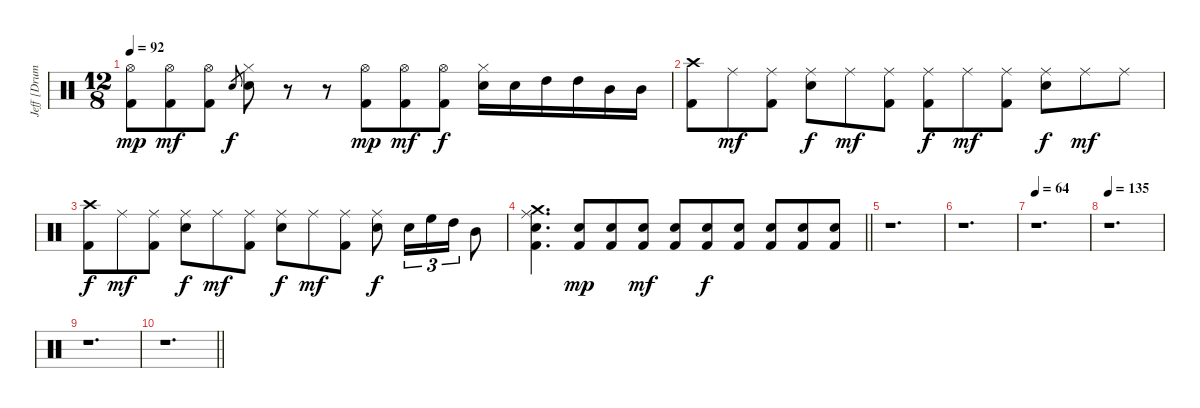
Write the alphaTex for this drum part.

\track ("Jeff [Drums]" "Jeff [Drum") {instrument percussion}
\staff {score}
\articulation defaults
\ts (12 8)
\tempo 92
\clef neutral
\ks c
("Hi-Hat (open)" "Kick (hit) 2").8{dy mp} ("Hi-Hat (open)" "Kick (hit) 2").8{dy mf} ("Hi-Hat (open)" "Kick (hit) 2").8 "Electric Snare (hit)".8{gr dy f} ("Hi-Hat (closed)" "Electric Snare (hit)").8 r.8 r.8 ("Hi-Hat (open)" "Kick (hit) 2").8{dy mp} ("Hi-Hat (open)" "Kick (hit) 2").8{dy mf} ("Hi-Hat (open)" "Kick (hit) 2").8{dy f} ("Hi-Hat (closed)" "Electric Snare (hit)").16 "Electric Snare (hit)".16 "High Tom (hit)".16 "High Tom (hit)".16 "Mid Tom (hit)".16 "Mid Tom (hit)".16 |
("Crash high (hit)" "Kick (hit) 2").8 "Ride (middle)".8{dy mf} ("Ride (middle)" "Kick (hit) 2").8 ("Ride (middle)" "Electric Snare (hit)").8{dy f} "Ride (middle)".8{dy mf} ("Ride (middle)" "Kick (hit) 2").8 ("Ride (middle)" "Kick (hit) 2").8{dy f} "Ride (middle)".8{dy mf} ("Ride (middle)" "Kick (hit) 2").8 ("Ride (middle)" "Electric Snare (hit)").8{dy f} "Ride (middle)".8{dy mf} "Ride (middle)".8 |
("Crash high (hit)" "Kick (hit) 2").8{dy f} "Ride (middle)".8{dy mf} ("Ride (middle)" "Kick (hit) 2").8 ("Ride (middle)" "Electric Snare (hit)").8{dy f} "Ride (middle)".8{dy mf} ("Ride (middle)" "Kick (hit) 2").8 ("Ride (middle)" "Electric Snare (hit)").8{dy f} "Ride (middle)".8{dy mf} ("Ride (middle)" "Kick (hit) 2").8 ("Ride (middle)" "Electric Snare (hit)").8{dy f} "Electric Snare (hit)".16{tu (3 2)} "High Floor Tom (hit)".16{tu (3 2)} "High Tom (hit)".16{tu (3 2)} "Mid Tom (hit)".8 |
\barLineRight lightlight
("Crash medium (hit)" "Ride (middle)" "Electric Snare (hit)" "Kick (hit) 2").4{d} ("Electric Snare (hit)" "Kick (hit) 2").8{dy mp} ("Electric Snare (hit)" "Kick (hit) 2").8 ("Electric Snare (hit)" "Kick (hit) 2").8{dy mf} ("Electric Snare (hit)" "Kick (hit) 2").8 ("Electric Snare (hit)" "Kick (hit) 2").8{dy f} ("Electric Snare (hit)" "Kick (hit) 2").8 ("Electric Snare (hit)" "Kick (hit) 2").8 ("Electric Snare (hit)" "Kick (hit) 2").8 ("Electric Snare (hit)" "Kick (hit) 2").8 |
r.1{d} |
r.1{d} |
\tempo 64
r.1{d} |
\tempo 135
r.1{d} |
r.1{d} |
\barLineRight lightlight
r.1{d}
